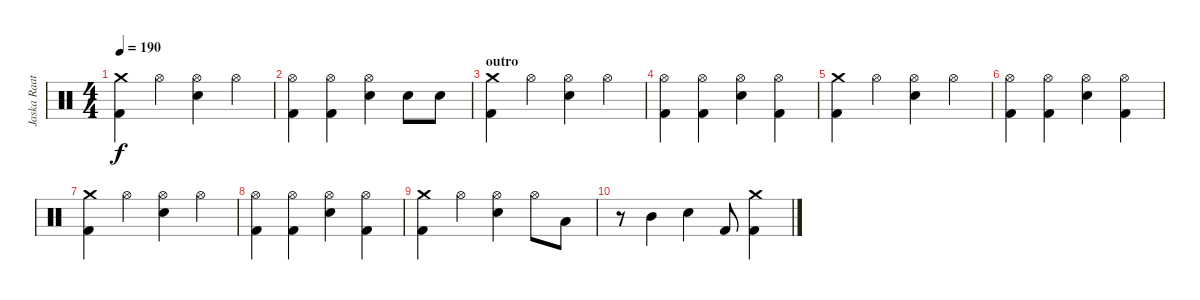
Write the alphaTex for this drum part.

\track ("Jaska Raatikainen" "Jaska Raat") {instrument percussion}
\staff {score}
\articulation defaults
\ts (4 4)
\tempo 190
\clef neutral
\ks c
("Crash medium (hit)" "Kick (hit) 2").4{dy f} "Hi-Hat (open)".4 ("Hi-Hat (open)" "Snare (hit) 2").4 "Hi-Hat (open)".4 |
("Hi-Hat (open)" "Kick (hit) 2").4 ("Hi-Hat (open)" "Kick (hit) 2").4 ("Hi-Hat (open)" "Snare (hit) 2").4 "Snare (hit) 2".8 "Snare (hit) 2".8 |
\section ("" "outro")
("Crash medium (hit)" "Kick (hit) 2").4 "Hi-Hat (open)".4 ("Hi-Hat (open)" "Snare (hit) 2").4 "Hi-Hat (open)".4 |
("Hi-Hat (open)" "Kick (hit) 2").4 ("Hi-Hat (open)" "Kick (hit) 2").4 ("Hi-Hat (open)" "Snare (hit) 2").4 ("Hi-Hat (open)" "Kick (hit) 2").4 |
("Crash medium (hit)" "Kick (hit) 2").4 "Hi-Hat (open)".4 ("Hi-Hat (open)" "Snare (hit) 2").4 "Hi-Hat (open)".4 |
("Hi-Hat (open)" "Kick (hit) 2").4 ("Hi-Hat (open)" "Kick (hit) 2").4 ("Hi-Hat (open)" "Snare (hit) 2").4 ("Hi-Hat (open)" "Kick (hit) 2").4 |
("Crash medium (hit)" "Kick (hit) 2").4 "Hi-Hat (open)".4 ("Hi-Hat (open)" "Snare (hit) 2").4 "Hi-Hat (open)".4 |
("Hi-Hat (open)" "Kick (hit) 2").4 ("Hi-Hat (open)" "Kick (hit) 2").4 ("Hi-Hat (open)" "Snare (hit) 2").4 ("Hi-Hat (open)" "Kick (hit) 2").4 |
("Crash medium (hit)" "Kick (hit) 2").4 "Hi-Hat (open)".4 ("Hi-Hat (open)" "Snare (hit) 2").4 "Hi-Hat (open)".8 "Low Tom (hit)".8 |
r.8 "Mid Tom (hit)".4 "Snare (hit) 2".4 "Kick (hit) 2".8 ("Crash medium (hit)" "Kick (hit) 2").4
